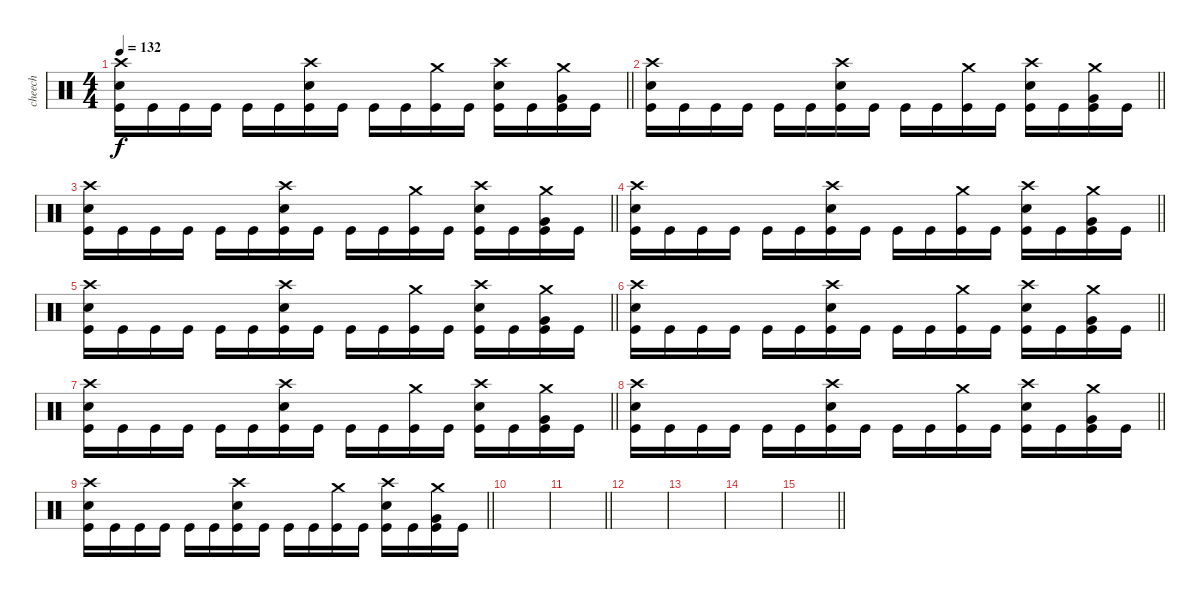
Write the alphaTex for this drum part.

\track ("cheech" "cheech") {instrument percussion}
\staff {score}
\articulation defaults
\ts (4 4)
\tempo 132
\clef neutral
\barLineRight lightlight
\ks c
("Crash high (hit)" "Electric Snare (hit)" "Kick (hit)").16{dy f} "Kick (hit)".16 "Kick (hit)".16 "Kick (hit)".16 "Kick (hit)".16 "Kick (hit)".16 ("Crash high (hit)" "Electric Snare (hit)" "Kick (hit)").16 "Kick (hit)".16 "Kick (hit)".16 "Kick (hit)".16 ("Crash medium (hit)" "Kick (hit)").16 "Kick (hit)".16 ("Crash high (hit)" "Electric Snare (hit)" "Kick (hit)").16 "Kick (hit)".16 ("Crash medium (hit)" "Very Low Tom (hit)" "Kick (hit)").16 "Kick (hit)".16 |
\barLineRight lightlight
("Crash high (hit)" "Electric Snare (hit)" "Kick (hit)").16 "Kick (hit)".16 "Kick (hit)".16 "Kick (hit)".16 "Kick (hit)".16 "Kick (hit)".16 ("Crash high (hit)" "Electric Snare (hit)" "Kick (hit)").16 "Kick (hit)".16 "Kick (hit)".16 "Kick (hit)".16 ("Crash medium (hit)" "Kick (hit)").16 "Kick (hit)".16 ("Crash high (hit)" "Electric Snare (hit)" "Kick (hit)").16 "Kick (hit)".16 ("Crash medium (hit)" "Very Low Tom (hit)" "Kick (hit)").16 "Kick (hit)".16 |
\barLineRight lightlight
("Crash high (hit)" "Electric Snare (hit)" "Kick (hit)").16 "Kick (hit)".16 "Kick (hit)".16 "Kick (hit)".16 "Kick (hit)".16 "Kick (hit)".16 ("Crash high (hit)" "Electric Snare (hit)" "Kick (hit)").16 "Kick (hit)".16 "Kick (hit)".16 "Kick (hit)".16 ("Crash medium (hit)" "Kick (hit)").16 "Kick (hit)".16 ("Crash high (hit)" "Electric Snare (hit)" "Kick (hit)").16 "Kick (hit)".16 ("Crash medium (hit)" "Very Low Tom (hit)" "Kick (hit)").16 "Kick (hit)".16 |
\barLineRight lightlight
("Crash high (hit)" "Electric Snare (hit)" "Kick (hit)").16 "Kick (hit)".16 "Kick (hit)".16 "Kick (hit)".16 "Kick (hit)".16 "Kick (hit)".16 ("Crash high (hit)" "Electric Snare (hit)" "Kick (hit)").16 "Kick (hit)".16 "Kick (hit)".16 "Kick (hit)".16 ("Crash medium (hit)" "Kick (hit)").16 "Kick (hit)".16 ("Crash high (hit)" "Electric Snare (hit)" "Kick (hit)").16 "Kick (hit)".16 ("Crash medium (hit)" "Very Low Tom (hit)" "Kick (hit)").16 "Kick (hit)".16 |
\barLineRight lightlight
("Crash high (hit)" "Electric Snare (hit)" "Kick (hit)").16 "Kick (hit)".16 "Kick (hit)".16 "Kick (hit)".16 "Kick (hit)".16 "Kick (hit)".16 ("Crash high (hit)" "Electric Snare (hit)" "Kick (hit)").16 "Kick (hit)".16 "Kick (hit)".16 "Kick (hit)".16 ("Crash medium (hit)" "Kick (hit)").16 "Kick (hit)".16 ("Crash high (hit)" "Electric Snare (hit)" "Kick (hit)").16 "Kick (hit)".16 ("Crash medium (hit)" "Very Low Tom (hit)" "Kick (hit)").16 "Kick (hit)".16 |
\barLineRight lightlight
("Crash high (hit)" "Electric Snare (hit)" "Kick (hit)").16 "Kick (hit)".16 "Kick (hit)".16 "Kick (hit)".16 "Kick (hit)".16 "Kick (hit)".16 ("Crash high (hit)" "Electric Snare (hit)" "Kick (hit)").16 "Kick (hit)".16 "Kick (hit)".16 "Kick (hit)".16 ("Crash medium (hit)" "Kick (hit)").16 "Kick (hit)".16 ("Crash high (hit)" "Electric Snare (hit)" "Kick (hit)").16 "Kick (hit)".16 ("Crash medium (hit)" "Very Low Tom (hit)" "Kick (hit)").16 "Kick (hit)".16 |
\barLineRight lightlight
("Crash high (hit)" "Electric Snare (hit)" "Kick (hit)").16 "Kick (hit)".16 "Kick (hit)".16 "Kick (hit)".16 "Kick (hit)".16 "Kick (hit)".16 ("Crash high (hit)" "Electric Snare (hit)" "Kick (hit)").16 "Kick (hit)".16 "Kick (hit)".16 "Kick (hit)".16 ("Crash medium (hit)" "Kick (hit)").16 "Kick (hit)".16 ("Crash high (hit)" "Electric Snare (hit)" "Kick (hit)").16 "Kick (hit)".16 ("Crash medium (hit)" "Very Low Tom (hit)" "Kick (hit)").16 "Kick (hit)".16 |
\barLineRight lightlight
("Crash high (hit)" "Electric Snare (hit)" "Kick (hit)").16 "Kick (hit)".16 "Kick (hit)".16 "Kick (hit)".16 "Kick (hit)".16 "Kick (hit)".16 ("Crash high (hit)" "Electric Snare (hit)" "Kick (hit)").16 "Kick (hit)".16 "Kick (hit)".16 "Kick (hit)".16 ("Crash medium (hit)" "Kick (hit)").16 "Kick (hit)".16 ("Crash high (hit)" "Electric Snare (hit)" "Kick (hit)").16 "Kick (hit)".16 ("Crash medium (hit)" "Very Low Tom (hit)" "Kick (hit)").16 "Kick (hit)".16 |
\barLineRight lightlight
("Crash high (hit)" "Electric Snare (hit)" "Kick (hit)").16 "Kick (hit)".16 "Kick (hit)".16 "Kick (hit)".16 "Kick (hit)".16 "Kick (hit)".16 ("Crash high (hit)" "Electric Snare (hit)" "Kick (hit)").16 "Kick (hit)".16 "Kick (hit)".16 "Kick (hit)".16 ("Crash medium (hit)" "Kick (hit)").16 "Kick (hit)".16 ("Crash high (hit)" "Electric Snare (hit)" "Kick (hit)").16 "Kick (hit)".16 ("Crash medium (hit)" "Very Low Tom (hit)" "Kick (hit)").16 "Kick (hit)".16 |
|
\barLineRight lightlight
|
|
|
|
\barLineRight lightlight
